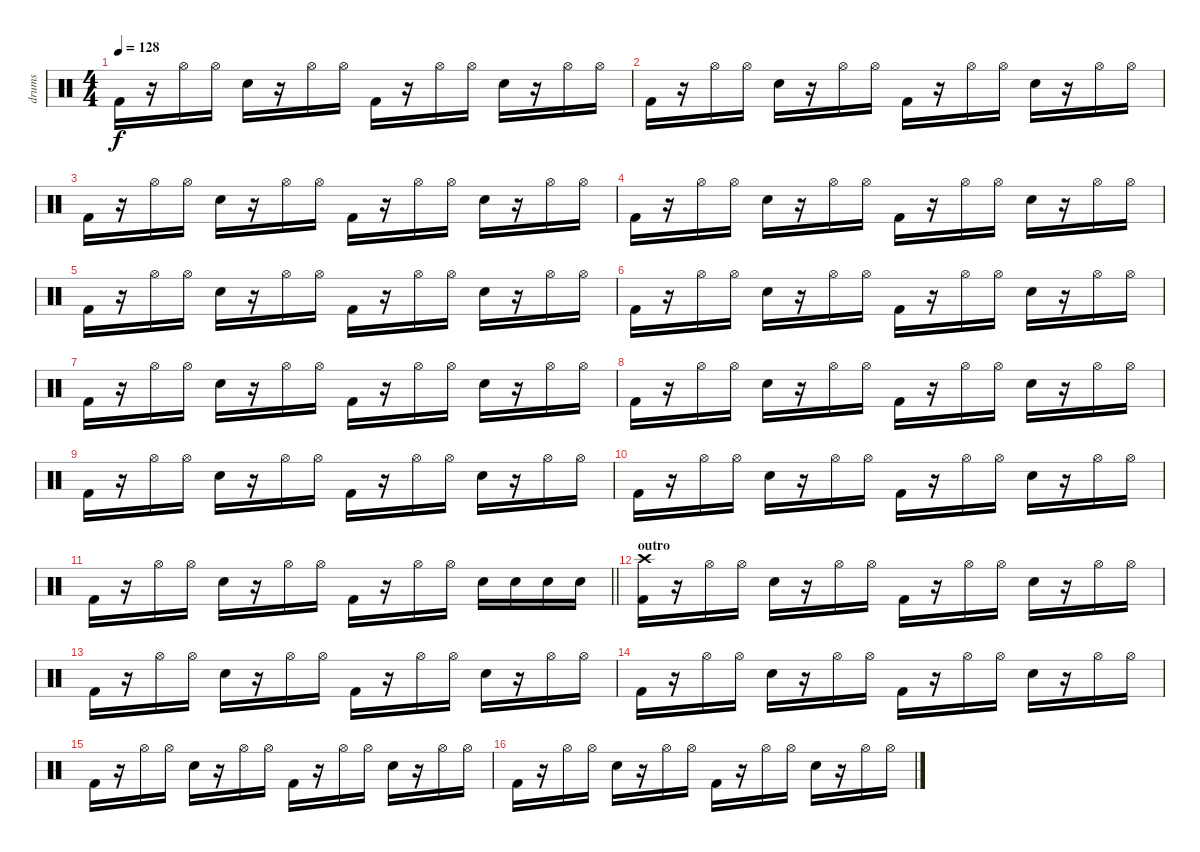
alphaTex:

\track ("drums" "drums") {instrument percussion}
\staff {score}
\articulation defaults
\ts (4 4)
\tempo 128
\clef neutral
\ks c "Kick (hit) 2".16{dy f}
r.16 "Hi-Hat (open)".16 "Hi-Hat (open)".16 "Electric Snare (hit)".16 r.16 "Hi-Hat (open)".16 "Hi-Hat (open)".16 "Kick (hit) 2".16 r.16 "Hi-Hat (open)".16 "Hi-Hat (open)".16 "Electric Snare (hit)".16 r.16 "Hi-Hat (open)".16 "Hi-Hat (open)".16 |
"Kick (hit) 2".16 r.16 "Hi-Hat (open)".16 "Hi-Hat (open)".16 "Electric Snare (hit)".16 r.16 "Hi-Hat (open)".16 "Hi-Hat (open)".16 "Kick (hit) 2".16 r.16 "Hi-Hat (open)".16 "Hi-Hat (open)".16 "Electric Snare (hit)".16 r.16 "Hi-Hat (open)".16 "Hi-Hat (open)".16 |
"Kick (hit) 2".16 r.16 "Hi-Hat (open)".16 "Hi-Hat (open)".16 "Electric Snare (hit)".16 r.16 "Hi-Hat (open)".16 "Hi-Hat (open)".16 "Kick (hit) 2".16 r.16 "Hi-Hat (open)".16 "Hi-Hat (open)".16 "Electric Snare (hit)".16 r.16 "Hi-Hat (open)".16 "Hi-Hat (open)".16 |
"Kick (hit) 2".16 r.16 "Hi-Hat (open)".16 "Hi-Hat (open)".16 "Electric Snare (hit)".16 r.16 "Hi-Hat (open)".16 "Hi-Hat (open)".16 "Kick (hit) 2".16 r.16 "Hi-Hat (open)".16 "Hi-Hat (open)".16 "Electric Snare (hit)".16 r.16 "Hi-Hat (open)".16 "Hi-Hat (open)".16 |
"Kick (hit) 2".16 r.16 "Hi-Hat (open)".16 "Hi-Hat (open)".16 "Electric Snare (hit)".16 r.16 "Hi-Hat (open)".16 "Hi-Hat (open)".16 "Kick (hit) 2".16 r.16 "Hi-Hat (open)".16 "Hi-Hat (open)".16 "Electric Snare (hit)".16 r.16 "Hi-Hat (open)".16 "Hi-Hat (open)".16 |
"Kick (hit) 2".16 r.16 "Hi-Hat (open)".16 "Hi-Hat (open)".16 "Electric Snare (hit)".16 r.16 "Hi-Hat (open)".16 "Hi-Hat (open)".16 "Kick (hit) 2".16 r.16 "Hi-Hat (open)".16 "Hi-Hat (open)".16 "Electric Snare (hit)".16 r.16 "Hi-Hat (open)".16 "Hi-Hat (open)".16 |
"Kick (hit) 2".16 r.16 "Hi-Hat (open)".16 "Hi-Hat (open)".16 "Electric Snare (hit)".16 r.16 "Hi-Hat (open)".16 "Hi-Hat (open)".16 "Kick (hit) 2".16 r.16 "Hi-Hat (open)".16 "Hi-Hat (open)".16 "Electric Snare (hit)".16 r.16 "Hi-Hat (open)".16 "Hi-Hat (open)".16 |
"Kick (hit) 2".16 r.16 "Hi-Hat (open)".16 "Hi-Hat (open)".16 "Electric Snare (hit)".16 r.16 "Hi-Hat (open)".16 "Hi-Hat (open)".16 "Kick (hit) 2".16 r.16 "Hi-Hat (open)".16 "Hi-Hat (open)".16 "Electric Snare (hit)".16 r.16 "Hi-Hat (open)".16 "Hi-Hat (open)".16 |
"Kick (hit) 2".16 r.16 "Hi-Hat (open)".16 "Hi-Hat (open)".16 "Electric Snare (hit)".16 r.16 "Hi-Hat (open)".16 "Hi-Hat (open)".16 "Kick (hit) 2".16 r.16 "Hi-Hat (open)".16 "Hi-Hat (open)".16 "Electric Snare (hit)".16 r.16 "Hi-Hat (open)".16 "Hi-Hat (open)".16 |
"Kick (hit) 2".16 r.16 "Hi-Hat (open)".16 "Hi-Hat (open)".16 "Electric Snare (hit)".16 r.16 "Hi-Hat (open)".16 "Hi-Hat (open)".16 "Kick (hit) 2".16 r.16 "Hi-Hat (open)".16 "Hi-Hat (open)".16 "Electric Snare (hit)".16 r.16 "Hi-Hat (open)".16 "Hi-Hat (open)".16 |
\barLineRight lightlight "Kick (hit) 2".16
r.16 "Hi-Hat (open)".16 "Hi-Hat (open)".16 "Electric Snare (hit)".16 r.16 "Hi-Hat (open)".16 "Hi-Hat (open)".16 "Kick (hit) 2".16 r.16 "Hi-Hat (open)".16 "Hi-Hat (open)".16 "Electric Snare (hit)".16 "Electric Snare (hit)".16 "Electric Snare (hit)".16 "Electric Snare (hit)".16 |
\section ("" "outro")
("Kick (hit) 2" "Crash high (hit)").16 r.16 "Hi-Hat (open)".16 "Hi-Hat (open)".16 "Electric Snare (hit)".16 r.16 "Hi-Hat (open)".16 "Hi-Hat (open)".16 "Kick (hit) 2".16 r.16 "Hi-Hat (open)".16 "Hi-Hat (open)".16 "Electric Snare (hit)".16 r.16 "Hi-Hat (open)".16 "Hi-Hat (open)".16 |
"Kick (hit) 2".16 r.16 "Hi-Hat (open)".16 "Hi-Hat (open)".16 "Electric Snare (hit)".16 r.16 "Hi-Hat (open)".16 "Hi-Hat (open)".16 "Kick (hit) 2".16 r.16 "Hi-Hat (open)".16 "Hi-Hat (open)".16 "Electric Snare (hit)".16 r.16 "Hi-Hat (open)".16 "Hi-Hat (open)".16 |
"Kick (hit) 2".16 r.16 "Hi-Hat (open)".16 "Hi-Hat (open)".16 "Electric Snare (hit)".16 r.16 "Hi-Hat (open)".16 "Hi-Hat (open)".16 "Kick (hit) 2".16 r.16 "Hi-Hat (open)".16 "Hi-Hat (open)".16 "Electric Snare (hit)".16 r.16 "Hi-Hat (open)".16 "Hi-Hat (open)".16 |
"Kick (hit) 2".16 r.16 "Hi-Hat (open)".16 "Hi-Hat (open)".16 "Electric Snare (hit)".16 r.16 "Hi-Hat (open)".16 "Hi-Hat (open)".16 "Kick (hit) 2".16 r.16 "Hi-Hat (open)".16 "Hi-Hat (open)".16 "Electric Snare (hit)".16 r.16 "Hi-Hat (open)".16 "Hi-Hat (open)".16 |
"Kick (hit) 2".16 r.16 "Hi-Hat (open)".16 "Hi-Hat (open)".16 "Electric Snare (hit)".16 r.16 "Hi-Hat (open)".16 "Hi-Hat (open)".16 "Kick (hit) 2".16 r.16 "Hi-Hat (open)".16 "Hi-Hat (open)".16 "Electric Snare (hit)".16 r.16 "Hi-Hat (open)".16 "Hi-Hat (open)".16
